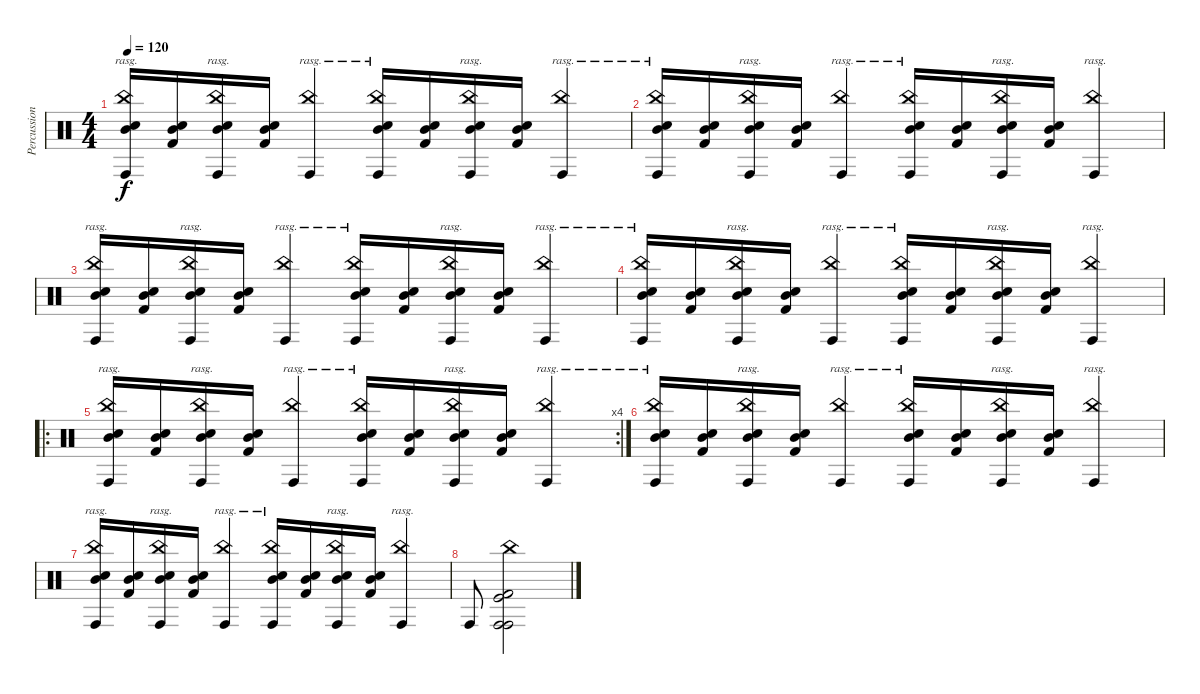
\track ("Percussion" "Percussion") {instrument percussion}
\staff {score}
\articulation defaults
\ts (4 4)
\tempo 120
\clef neutral
\ks c
("China (hit)" "Electric Snare (hit)" "Mid Tom (hit)" "Conga high (hit)").16{bd 480 rasg ii dy f} ("Electric Snare (hit)" "Mid Tom (hit)" "Kick (hit) 2").16 ("China (hit)" "Electric Snare (hit)" "Mid Tom (hit)" "Conga high (hit)").16{bd 480 rasg ii} ("Electric Snare (hit)" "Mid Tom (hit)" "Kick (hit) 2").16 ("China (hit)" "Conga high (hit)").4{bd 480 rasg ii} ("China (hit)" "Electric Snare (hit)" "Mid Tom (hit)" "Conga high (hit)").16{bd 480 rasg ii} ("Electric Snare (hit)" "Mid Tom (hit)" "Kick (hit) 2").16 ("China (hit)" "Electric Snare (hit)" "Mid Tom (hit)" "Conga high (hit)").16{bd 480 rasg ii} ("Electric Snare (hit)" "Mid Tom (hit)" "Kick (hit) 2").16 ("China (hit)" "Conga high (hit)").4{bd 480 rasg ii} |
("China (hit)" "Electric Snare (hit)" "Mid Tom (hit)" "Conga high (hit)").16{bd 480 rasg ii} ("Electric Snare (hit)" "Mid Tom (hit)" "Kick (hit) 2").16 ("China (hit)" "Electric Snare (hit)" "Mid Tom (hit)" "Conga high (hit)").16{bd 480 rasg ii} ("Electric Snare (hit)" "Mid Tom (hit)" "Kick (hit) 2").16 ("China (hit)" "Conga high (hit)").4{bd 480 rasg ii} ("China (hit)" "Electric Snare (hit)" "Mid Tom (hit)" "Conga high (hit)").16{bd 480 rasg ii} ("Electric Snare (hit)" "Mid Tom (hit)" "Kick (hit) 2").16 ("China (hit)" "Electric Snare (hit)" "Mid Tom (hit)" "Conga high (hit)").16{bd 480 rasg ii} ("Electric Snare (hit)" "Mid Tom (hit)" "Kick (hit) 2").16 ("China (hit)" "Conga high (hit)").4{bd 480 rasg ii} |
("China (hit)" "Electric Snare (hit)" "Mid Tom (hit)" "Conga high (hit)").16{bd 480 rasg ii} ("Electric Snare (hit)" "Mid Tom (hit)" "Kick (hit) 2").16 ("China (hit)" "Electric Snare (hit)" "Mid Tom (hit)" "Conga high (hit)").16{bd 480 rasg ii} ("Electric Snare (hit)" "Mid Tom (hit)" "Kick (hit) 2").16 ("China (hit)" "Conga high (hit)").4{bd 480 rasg ii} ("China (hit)" "Electric Snare (hit)" "Mid Tom (hit)" "Conga high (hit)").16{bd 480 rasg ii} ("Electric Snare (hit)" "Mid Tom (hit)" "Kick (hit) 2").16 ("China (hit)" "Electric Snare (hit)" "Mid Tom (hit)" "Conga high (hit)").16{bd 480 rasg ii} ("Electric Snare (hit)" "Mid Tom (hit)" "Kick (hit) 2").16 ("China (hit)" "Conga high (hit)").4{bd 480 rasg ii} |
("China (hit)" "Electric Snare (hit)" "Mid Tom (hit)" "Conga high (hit)").16{bd 480 rasg ii} ("Electric Snare (hit)" "Mid Tom (hit)" "Kick (hit) 2").16 ("China (hit)" "Electric Snare (hit)" "Mid Tom (hit)" "Conga high (hit)").16{bd 480 rasg ii} ("Electric Snare (hit)" "Mid Tom (hit)" "Kick (hit) 2").16 ("China (hit)" "Conga high (hit)").4{bd 480 rasg ii} ("China (hit)" "Electric Snare (hit)" "Mid Tom (hit)" "Conga high (hit)").16{bd 480 rasg ii} ("Electric Snare (hit)" "Mid Tom (hit)" "Kick (hit) 2").16 ("China (hit)" "Electric Snare (hit)" "Mid Tom (hit)" "Conga high (hit)").16{bd 480 rasg ii} ("Electric Snare (hit)" "Mid Tom (hit)" "Kick (hit) 2").16 ("China (hit)" "Conga high (hit)").4{bd 480 rasg ii} |
\ro
\rc 4
("China (hit)" "Electric Snare (hit)" "Mid Tom (hit)" "Conga high (hit)").16{bd 480 rasg ii} ("Electric Snare (hit)" "Mid Tom (hit)" "Kick (hit) 2").16 ("China (hit)" "Electric Snare (hit)" "Mid Tom (hit)" "Conga high (hit)").16{bd 480 rasg ii} ("Electric Snare (hit)" "Mid Tom (hit)" "Kick (hit) 2").16 ("China (hit)" "Conga high (hit)").4{bd 480 rasg ii} ("China (hit)" "Electric Snare (hit)" "Mid Tom (hit)" "Conga high (hit)").16{bd 480 rasg ii} ("Electric Snare (hit)" "Mid Tom (hit)" "Kick (hit) 2").16 ("China (hit)" "Electric Snare (hit)" "Mid Tom (hit)" "Conga high (hit)").16{bd 480 rasg ii} ("Electric Snare (hit)" "Mid Tom (hit)" "Kick (hit) 2").16 ("China (hit)" "Conga high (hit)").4{bd 480 rasg ii} |
("China (hit)" "Electric Snare (hit)" "Mid Tom (hit)" "Conga high (hit)").16{bd 480 rasg ii} ("Electric Snare (hit)" "Mid Tom (hit)" "Kick (hit) 2").16 ("China (hit)" "Electric Snare (hit)" "Mid Tom (hit)" "Conga high (hit)").16{bd 480 rasg ii} ("Electric Snare (hit)" "Mid Tom (hit)" "Kick (hit) 2").16 ("China (hit)" "Conga high (hit)").4{bd 480 rasg ii} ("China (hit)" "Electric Snare (hit)" "Mid Tom (hit)" "Conga high (hit)").16{bd 480 rasg ii} ("Electric Snare (hit)" "Mid Tom (hit)" "Kick (hit) 2").16 ("China (hit)" "Electric Snare (hit)" "Mid Tom (hit)" "Conga high (hit)").16{bd 480 rasg ii} ("Electric Snare (hit)" "Mid Tom (hit)" "Kick (hit) 2").16 ("China (hit)" "Conga high (hit)").4{bd 480 rasg ii} |
("China (hit)" "Electric Snare (hit)" "Mid Tom (hit)" "Conga high (hit)").16{bd 480 rasg ii} ("Electric Snare (hit)" "Mid Tom (hit)" "Kick (hit) 2").16 ("China (hit)" "Electric Snare (hit)" "Mid Tom (hit)" "Conga high (hit)").16{bd 480 rasg ii} ("Electric Snare (hit)" "Mid Tom (hit)" "Kick (hit) 2").16 ("China (hit)" "Conga high (hit)").4{bd 480 rasg ii} ("China (hit)" "Electric Snare (hit)" "Mid Tom (hit)" "Conga high (hit)").16{bd 480 rasg ii} ("Electric Snare (hit)" "Mid Tom (hit)" "Kick (hit) 2").16 ("China (hit)" "Electric Snare (hit)" "Mid Tom (hit)" "Conga high (hit)").16{bd 480 rasg ii} ("Electric Snare (hit)" "Mid Tom (hit)" "Kick (hit) 2").16 ("China (hit)" "Conga high (hit)").4{bd 480 rasg ii} |
"Conga high (hit)".8 ("Conga high (hit)" "China (hit)" "Kick (hit) 2" "Kick (hit)" "Conga high (hit)").2{bd 480}
